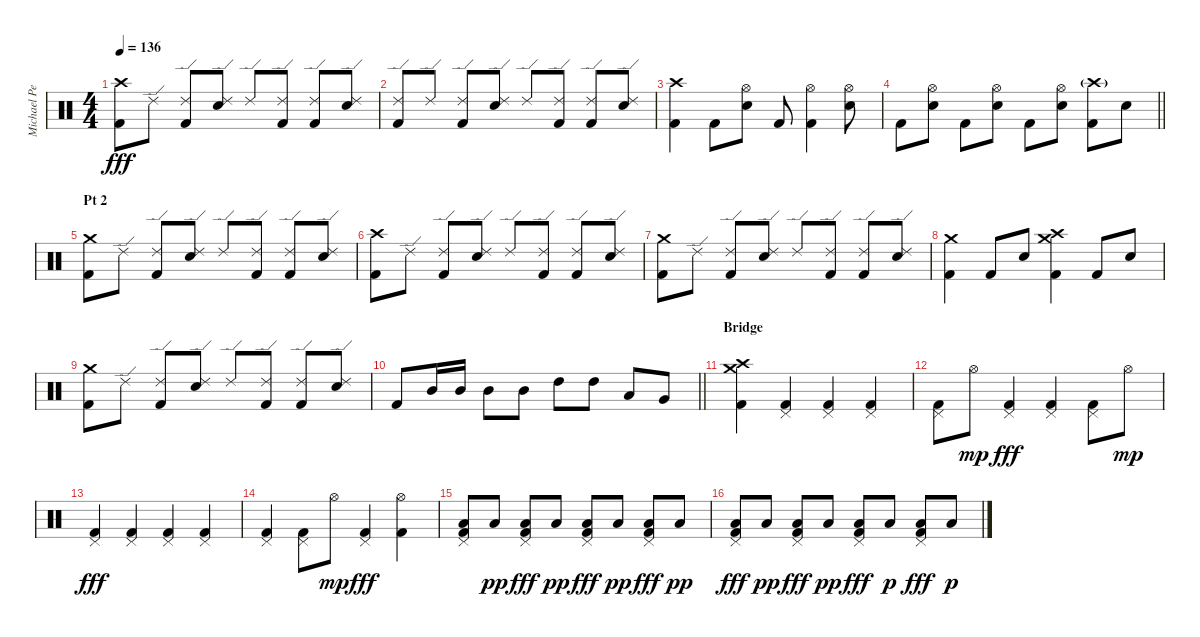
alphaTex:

\track ("Michael Pedicone [Drums]" "Michael Pe") {instrument percussion}
\staff
\articulation defaults
\ts (4 4)
\tempo 136
\clef neutral
\ks c
("Crash high (hit)" "Kick (hit) 2").8{dy fff} "Ride (edge) 2".8 ("Ride (edge) 2" "Kick (hit) 2").8 ("Ride (edge) 2" "Electric Snare (hit)").8 "Ride (edge) 2".8 ("Ride (edge) 2" "Kick (hit) 2").8 ("Ride (edge) 2" "Kick (hit) 2").8 ("Ride (edge) 2" "Electric Snare (hit)").8 |
("Ride (edge) 2" "Kick (hit) 2").8 "Ride (edge) 2".8 ("Ride (edge) 2" "Kick (hit) 2").8 ("Ride (edge) 2" "Electric Snare (hit)").8 "Ride (edge) 2".8 ("Ride (edge) 2" "Kick (hit) 2").8 ("Ride (edge) 2" "Kick (hit) 2").8 ("Ride (edge) 2" "Electric Snare (hit)").8 |
("Crash high (hit)" "Kick (hit) 2").4 "Kick (hit) 2".8 ("Hi-Hat (open)" "Electric Snare (hit)").8 "Kick (hit) 2".8 ("Hi-Hat (open)" "Kick (hit) 2").4 ("Hi-Hat (open)" "Electric Snare (hit)").8 |
\barLineRight lightlight "Kick (hit) 2".8
("Hi-Hat (open)" "Electric Snare (hit)").8 "Kick (hit) 2".8 ("Hi-Hat (open)" "Electric Snare (hit)").8 "Kick (hit) 2".8 ("Hi-Hat (open)" "Electric Snare (hit)").8 ("Crash high (hit)"{g} "Kick (hit) 2").8 "Electric Snare (hit)".8 |
\section ("" "Pt 2")
("Crash medium (hit)" "Kick (hit) 2").8 "Ride (edge) 2".8 ("Ride (edge) 2" "Kick (hit) 2").8 ("Ride (edge) 2" "Electric Snare (hit)").8 "Ride (edge) 2".8 ("Ride (edge) 2" "Kick (hit) 2").8 ("Ride (edge) 2" "Kick (hit) 2").8 ("Ride (edge) 2" "Electric Snare (hit)").8 |
("Crash high (hit)" "Kick (hit) 2").8 "Ride (edge) 2".8 ("Ride (edge) 2" "Kick (hit) 2").8 ("Ride (edge) 2" "Electric Snare (hit)").8 "Ride (edge) 2".8 ("Ride (edge) 2" "Kick (hit) 2").8 ("Ride (edge) 2" "Kick (hit) 2").8 ("Ride (edge) 2" "Electric Snare (hit)").8 |
("Crash medium (hit)" "Kick (hit) 2").8 "Ride (edge) 2".8 ("Ride (edge) 2" "Kick (hit) 2").8 ("Ride (edge) 2" "Electric Snare (hit)").8 "Ride (edge) 2".8 ("Ride (edge) 2" "Kick (hit) 2").8 ("Ride (edge) 2" "Kick (hit) 2").8 ("Ride (edge) 2" "Electric Snare (hit)").8 |
("Crash medium (hit)" "Kick (hit) 2").4 "Kick (hit) 2".8 "Electric Snare (hit)".8 ("Crash high (hit)" "Crash medium (hit)" "Kick (hit) 2").4 "Kick (hit) 2".8 "Electric Snare (hit)".8 |
("Crash medium (hit)" "Kick (hit) 2").8 "Ride (edge) 2".8 ("Ride (edge) 2" "Kick (hit) 2").8 ("Ride (edge) 2" "Electric Snare (hit)").8 "Ride (edge) 2".8 ("Ride (edge) 2" "Kick (hit) 2").8 ("Ride (edge) 2" "Kick (hit) 2").8 ("Ride (edge) 2" "Electric Snare (hit)").8 |
\barLineRight lightlight "Kick (hit) 2".8 "Mid Tom (hit)".16 "Mid Tom (hit)".16 "Mid Tom (hit)".8 "Mid Tom (hit)".8 "High Tom (hit)".8 "High Tom (hit)".8 "Low Tom (hit)".8 "Very Low Tom (hit)".8
|
\section ("" "Bridge")
("Crash high (hit)" "Crash medium (hit)" "Kick (hit) 2").4 ("Pedal Hi-Hat (hit)" "Kick (hit) 2").4 ("Pedal Hi-Hat (hit)" "Kick (hit) 2").4 ("Pedal Hi-Hat (hit)" "Kick (hit) 2").4 |
("Pedal Hi-Hat (hit)" "Kick (hit) 2").8 "Hi-Hat (open)".8{dy mp} ("Pedal Hi-Hat (hit)" "Kick (hit) 2").4{dy fff} ("Pedal Hi-Hat (hit)" "Kick (hit) 2").4 ("Pedal Hi-Hat (hit)" "Kick (hit) 2").8 "Hi-Hat (open)".8{dy mp} |
("Pedal Hi-Hat (hit)" "Kick (hit) 2").4{dy fff} ("Pedal Hi-Hat (hit)" "Kick (hit) 2").4 ("Pedal Hi-Hat (hit)" "Kick (hit) 2").4 ("Pedal Hi-Hat (hit)" "Kick (hit) 2").4 |
("Pedal Hi-Hat (hit)" "Kick (hit) 2").4 ("Pedal Hi-Hat (hit)" "Kick (hit) 2").8 "Hi-Hat (open)".8{dy mp} ("Pedal Hi-Hat (hit)" "Kick (hit) 2").4{dy fff} ("Hi-Hat (open)" "Kick (hit) 2").4 |
("Low Floor Tom (hit)" "Pedal Hi-Hat (hit)" "Kick (hit) 2").8 "Low Floor Tom (hit)".8{dy pp} ("Low Floor Tom (hit)" "Pedal Hi-Hat (hit)" "Kick (hit) 2").8{dy fff} "Low Floor Tom (hit)".8{dy pp} ("Low Floor Tom (hit)" "Pedal Hi-Hat (hit)" "Kick (hit) 2").8{dy fff} "Low Floor Tom (hit)".8{dy pp} ("Low Floor Tom (hit)" "Pedal Hi-Hat (hit)" "Kick (hit) 2").8{dy fff} "Low Floor Tom (hit)".8{dy pp} |
("Low Floor Tom (hit)" "Pedal Hi-Hat (hit)" "Kick (hit) 2").8{dy fff} "Low Floor Tom (hit)".8{dy pp} ("Low Floor Tom (hit)" "Pedal Hi-Hat (hit)" "Kick (hit) 2").8{dy fff} "Low Floor Tom (hit)".8{dy pp} ("Low Floor Tom (hit)" "Pedal Hi-Hat (hit)" "Kick (hit) 2").8{dy fff} "Low Floor Tom (hit)".8{dy p} ("Low Floor Tom (hit)" "Pedal Hi-Hat (hit)" "Kick (hit) 2").8{dy fff} "Low Floor Tom (hit)".8{dy p}
